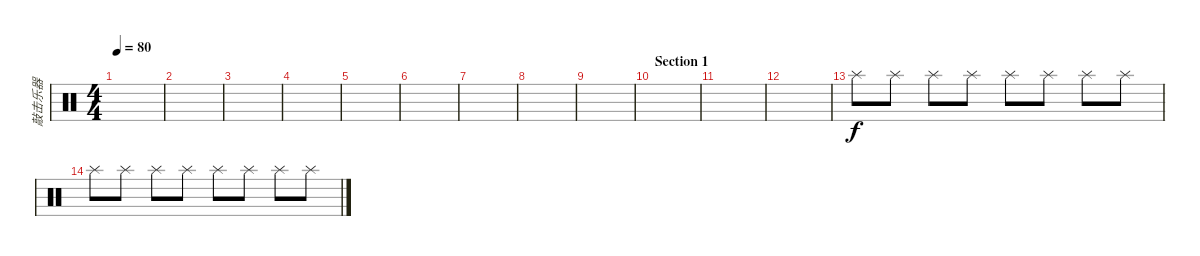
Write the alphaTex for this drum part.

\track ("敲击乐器" "敲击乐器") {instrument percussion}
\staff {score}
\articulation defaults
\ts (4 4)
\tempo 80
\clef neutral
\ks c
|
|
|
|
|
|
|
|
|
\section ("" "Section 1")
|
|
|
"Splash (hit)".8 "Splash (hit)".8 "Splash (hit)".8 "Splash (hit)".8 "Splash (hit)".8 "Splash (hit)".8 "Splash (hit)".8 "Splash (hit)".8 |
"Splash (hit)".8 "Splash (hit)".8 "Splash (hit)".8 "Splash (hit)".8 "Splash (hit)".8 "Splash (hit)".8 "Splash (hit)".8 "Splash (hit)".8
